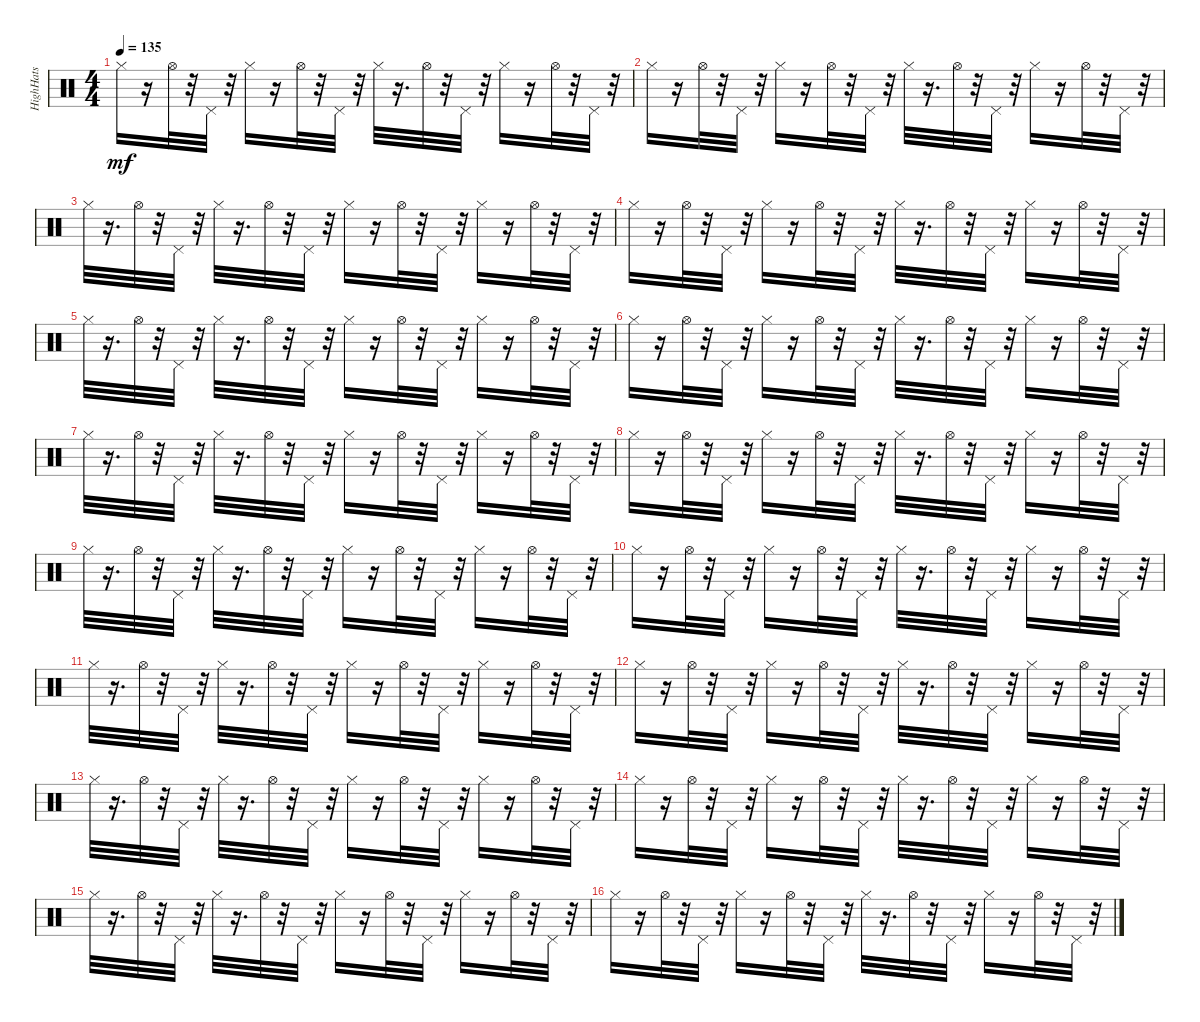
\track ("HighHats" "HighHats") {instrument percussion}
\staff {score}
\articulation defaults
\ts (4 4)
\tempo 135
\clef neutral
\ks c "Hi-Hat (closed)".16{dy mf}
r.16 "Hi-Hat (open)".32 r.32 "Pedal Hi-Hat (hit)".32 r.32 "Hi-Hat (closed)".16 r.16 "Hi-Hat (open)".32 r.32 "Pedal Hi-Hat (hit)".32 r.32 "Hi-Hat (closed)".32 r.16{d} "Hi-Hat (open)".32 r.32 "Pedal Hi-Hat (hit)".32 r.32 "Hi-Hat (closed)".16 r.16 "Hi-Hat (open)".32 r.32 "Pedal Hi-Hat (hit)".32 r.32 |
"Hi-Hat (closed)".16 r.16 "Hi-Hat (open)".32 r.32 "Pedal Hi-Hat (hit)".32 r.32 "Hi-Hat (closed)".16 r.16 "Hi-Hat (open)".32 r.32 "Pedal Hi-Hat (hit)".32 r.32 "Hi-Hat (closed)".32 r.16{d} "Hi-Hat (open)".32 r.32 "Pedal Hi-Hat (hit)".32 r.32 "Hi-Hat (closed)".16 r.16 "Hi-Hat (open)".32 r.32 "Pedal Hi-Hat (hit)".32 r.32 |
"Hi-Hat (closed)".32 r.16{d} "Hi-Hat (open)".32 r.32 "Pedal Hi-Hat (hit)".32 r.32 "Hi-Hat (closed)".32 r.16{d} "Hi-Hat (open)".32 r.32 "Pedal Hi-Hat (hit)".32 r.32 "Hi-Hat (closed)".16 r.16 "Hi-Hat (open)".32 r.32 "Pedal Hi-Hat (hit)".32 r.32 "Hi-Hat (closed)".16 r.16 "Hi-Hat (open)".32 r.32 "Pedal Hi-Hat (hit)".32 r.32 |
"Hi-Hat (closed)".16 r.16 "Hi-Hat (open)".32 r.32 "Pedal Hi-Hat (hit)".32 r.32 "Hi-Hat (closed)".16 r.16 "Hi-Hat (open)".32 r.32 "Pedal Hi-Hat (hit)".32 r.32 "Hi-Hat (closed)".32 r.16{d} "Hi-Hat (open)".32 r.32 "Pedal Hi-Hat (hit)".32 r.32 "Hi-Hat (closed)".16 r.16 "Hi-Hat (open)".32 r.32 "Pedal Hi-Hat (hit)".32 r.32 |
"Hi-Hat (closed)".32 r.16{d} "Hi-Hat (open)".32 r.32 "Pedal Hi-Hat (hit)".32 r.32 "Hi-Hat (closed)".32 r.16{d} "Hi-Hat (open)".32 r.32 "Pedal Hi-Hat (hit)".32 r.32 "Hi-Hat (closed)".16 r.16 "Hi-Hat (open)".32 r.32 "Pedal Hi-Hat (hit)".32 r.32 "Hi-Hat (closed)".16 r.16 "Hi-Hat (open)".32 r.32 "Pedal Hi-Hat (hit)".32 r.32 |
"Hi-Hat (closed)".16 r.16 "Hi-Hat (open)".32 r.32 "Pedal Hi-Hat (hit)".32 r.32 "Hi-Hat (closed)".16 r.16 "Hi-Hat (open)".32 r.32 "Pedal Hi-Hat (hit)".32 r.32 "Hi-Hat (closed)".32 r.16{d} "Hi-Hat (open)".32 r.32 "Pedal Hi-Hat (hit)".32 r.32 "Hi-Hat (closed)".16 r.16 "Hi-Hat (open)".32 r.32 "Pedal Hi-Hat (hit)".32 r.32 |
"Hi-Hat (closed)".32 r.16{d} "Hi-Hat (open)".32 r.32 "Pedal Hi-Hat (hit)".32 r.32 "Hi-Hat (closed)".32 r.16{d} "Hi-Hat (open)".32 r.32 "Pedal Hi-Hat (hit)".32 r.32 "Hi-Hat (closed)".16 r.16 "Hi-Hat (open)".32 r.32 "Pedal Hi-Hat (hit)".32 r.32 "Hi-Hat (closed)".16 r.16 "Hi-Hat (open)".32 r.32 "Pedal Hi-Hat (hit)".32 r.32 |
"Hi-Hat (closed)".16 r.16 "Hi-Hat (open)".32 r.32 "Pedal Hi-Hat (hit)".32 r.32 "Hi-Hat (closed)".16 r.16 "Hi-Hat (open)".32 r.32 "Pedal Hi-Hat (hit)".32 r.32 "Hi-Hat (closed)".32 r.16{d} "Hi-Hat (open)".32 r.32 "Pedal Hi-Hat (hit)".32 r.32 "Hi-Hat (closed)".16 r.16 "Hi-Hat (open)".32 r.32 "Pedal Hi-Hat (hit)".32 r.32 |
"Hi-Hat (closed)".32 r.16{d} "Hi-Hat (open)".32 r.32 "Pedal Hi-Hat (hit)".32 r.32 "Hi-Hat (closed)".32 r.16{d} "Hi-Hat (open)".32 r.32 "Pedal Hi-Hat (hit)".32 r.32 "Hi-Hat (closed)".16 r.16 "Hi-Hat (open)".32 r.32 "Pedal Hi-Hat (hit)".32 r.32 "Hi-Hat (closed)".16 r.16 "Hi-Hat (open)".32 r.32 "Pedal Hi-Hat (hit)".32 r.32 |
"Hi-Hat (closed)".16 r.16 "Hi-Hat (open)".32 r.32 "Pedal Hi-Hat (hit)".32 r.32 "Hi-Hat (closed)".16 r.16 "Hi-Hat (open)".32 r.32 "Pedal Hi-Hat (hit)".32 r.32 "Hi-Hat (closed)".32 r.16{d} "Hi-Hat (open)".32 r.32 "Pedal Hi-Hat (hit)".32 r.32 "Hi-Hat (closed)".16 r.16 "Hi-Hat (open)".32 r.32 "Pedal Hi-Hat (hit)".32 r.32 |
"Hi-Hat (closed)".32 r.16{d} "Hi-Hat (open)".32 r.32 "Pedal Hi-Hat (hit)".32 r.32 "Hi-Hat (closed)".32 r.16{d} "Hi-Hat (open)".32 r.32 "Pedal Hi-Hat (hit)".32 r.32 "Hi-Hat (closed)".16 r.16 "Hi-Hat (open)".32 r.32 "Pedal Hi-Hat (hit)".32 r.32 "Hi-Hat (closed)".16 r.16 "Hi-Hat (open)".32 r.32 "Pedal Hi-Hat (hit)".32 r.32 |
"Hi-Hat (closed)".16 r.16 "Hi-Hat (open)".32 r.32 "Pedal Hi-Hat (hit)".32 r.32 "Hi-Hat (closed)".16 r.16 "Hi-Hat (open)".32 r.32 "Pedal Hi-Hat (hit)".32 r.32 "Hi-Hat (closed)".32 r.16{d} "Hi-Hat (open)".32 r.32 "Pedal Hi-Hat (hit)".32 r.32 "Hi-Hat (closed)".16 r.16 "Hi-Hat (open)".32 r.32 "Pedal Hi-Hat (hit)".32 r.32 |
"Hi-Hat (closed)".32 r.16{d} "Hi-Hat (open)".32 r.32 "Pedal Hi-Hat (hit)".32 r.32 "Hi-Hat (closed)".32 r.16{d} "Hi-Hat (open)".32 r.32 "Pedal Hi-Hat (hit)".32 r.32 "Hi-Hat (closed)".16 r.16 "Hi-Hat (open)".32 r.32 "Pedal Hi-Hat (hit)".32 r.32 "Hi-Hat (closed)".16 r.16 "Hi-Hat (open)".32 r.32 "Pedal Hi-Hat (hit)".32 r.32 |
"Hi-Hat (closed)".16 r.16 "Hi-Hat (open)".32 r.32 "Pedal Hi-Hat (hit)".32 r.32 "Hi-Hat (closed)".16 r.16 "Hi-Hat (open)".32 r.32 "Pedal Hi-Hat (hit)".32 r.32 "Hi-Hat (closed)".32 r.16{d} "Hi-Hat (open)".32 r.32 "Pedal Hi-Hat (hit)".32 r.32 "Hi-Hat (closed)".16 r.16 "Hi-Hat (open)".32 r.32 "Pedal Hi-Hat (hit)".32 r.32 |
"Hi-Hat (closed)".32 r.16{d} "Hi-Hat (open)".32 r.32 "Pedal Hi-Hat (hit)".32 r.32 "Hi-Hat (closed)".32 r.16{d} "Hi-Hat (open)".32 r.32 "Pedal Hi-Hat (hit)".32 r.32 "Hi-Hat (closed)".16 r.16 "Hi-Hat (open)".32 r.32 "Pedal Hi-Hat (hit)".32 r.32 "Hi-Hat (closed)".16 r.16 "Hi-Hat (open)".32 r.32 "Pedal Hi-Hat (hit)".32 r.32 |
"Hi-Hat (closed)".16 r.16 "Hi-Hat (open)".32 r.32 "Pedal Hi-Hat (hit)".32 r.32 "Hi-Hat (closed)".16 r.16 "Hi-Hat (open)".32 r.32 "Pedal Hi-Hat (hit)".32 r.32 "Hi-Hat (closed)".32 r.16{d} "Hi-Hat (open)".32 r.32 "Pedal Hi-Hat (hit)".32 r.32 "Hi-Hat (closed)".16 r.16 "Hi-Hat (open)".32 r.32 "Pedal Hi-Hat (hit)".32 r.32
